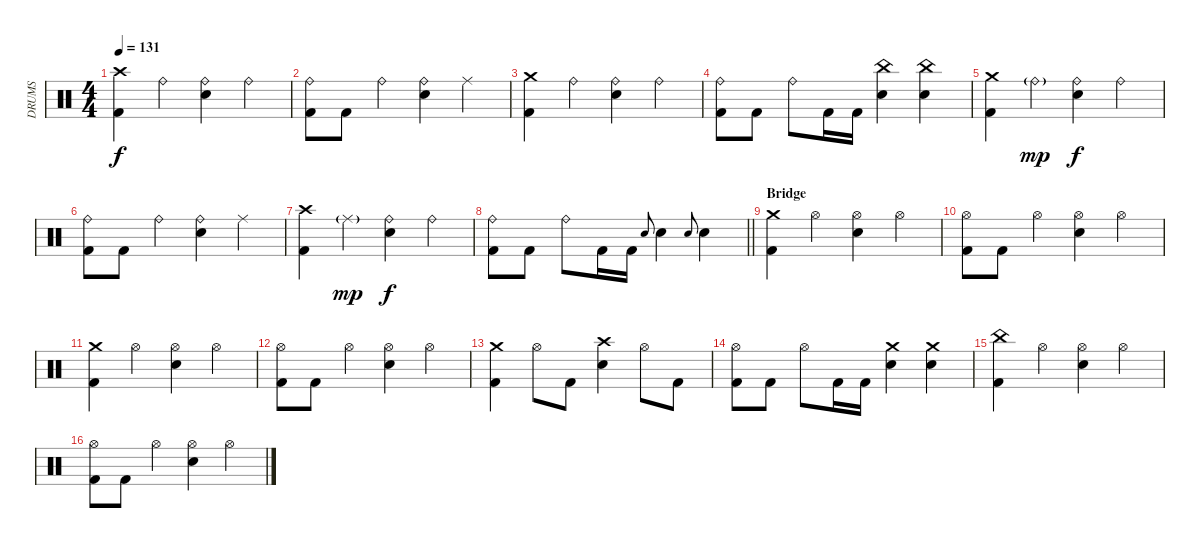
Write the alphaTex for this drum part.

\track ("DRUMS" "DRUMS") {instrument percussion}
\staff {score}
\articulation defaults
\ts (4 4)
\tempo 131
\clef neutral
\ks c
("Crash high (hit)" "Kick (hit) 2").4{dy f} "Ride (bell)".4 ("Ride (bell)" "Snare (hit) 2").4 "Ride (bell)".4 |
("Ride (bell)" "Kick (hit) 2").8 "Kick (hit) 2".8 "Ride (bell)".4 ("Ride (bell)" "Snare (hit) 2").4 "Ride (middle)".4 |
("Crash medium (hit)" "Kick (hit) 2").4 "Ride (bell)".4 ("Ride (bell)" "Snare (hit) 2").4 "Ride (bell)".4 |
("Ride (bell)" "Kick (hit) 2").8 "Kick (hit) 2".8 "Ride (bell)".8 "Kick (hit) 2".16 "Kick (hit) 2".16 ("China (hit)" "Snare (hit) 2").4 ("China (hit)" "Snare (hit) 2").4 |
("Crash medium (hit)" "Kick (hit) 2").4 "Ride (bell)"{g}.4{dy mp} ("Ride (bell)" "Snare (hit) 2").4{dy f} "Ride (bell)".4 |
("Ride (bell)" "Kick (hit) 2").8 "Kick (hit) 2".8 "Ride (bell)".4 ("Ride (bell)" "Snare (hit) 2").4 "Ride (middle)".4 |
("Crash high (hit)" "Kick (hit) 2").4 "Ride (middle)"{g}.4{dy mp} ("Ride (bell)" "Snare (hit) 2").4{dy f} "Ride (bell)".4 |
\barLineRight lightlight
("Ride (bell)" "Kick (hit) 2").8 "Kick (hit) 2".8 "Ride (bell)".8 "Kick (hit) 2".16 "Kick (hit) 2".16 "Snare (hit) 2".8{gr onbeat} "Snare (hit) 2".4 "Snare (hit) 2".8{gr onbeat} "Snare (hit) 2".4 |
\section ("" "Bridge")
("Crash medium (hit)" "Kick (hit) 2").4 "Hi-Hat (open)".4 ("Hi-Hat (open)" "Snare (hit) 2").4 "Hi-Hat (open)".4 |
("Hi-Hat (open)" "Kick (hit) 2").8 "Kick (hit) 2".8 "Hi-Hat (open)".4 ("Hi-Hat (open)" "Snare (hit) 2").4 "Hi-Hat (open)".4 |
("Crash medium (hit)" "Kick (hit) 2").4 "Hi-Hat (open)".4 ("Hi-Hat (open)" "Snare (hit) 2").4 "Hi-Hat (open)".4 |
("Hi-Hat (open)" "Kick (hit) 2").8 "Kick (hit) 2".8 "Hi-Hat (open)".4 ("Hi-Hat (open)" "Snare (hit) 2").4 "Hi-Hat (open)".4 |
("Crash medium (hit)" "Kick (hit) 2").4 "Hi-Hat (open)".8 "Kick (hit) 2".8 ("Crash high (hit)" "Snare (hit) 2").4 "Hi-Hat (open)".8 "Kick (hit) 2".8 |
("Hi-Hat (open)" "Kick (hit) 2").8 "Kick (hit) 2".8 "Hi-Hat (open)".8 "Kick (hit) 2".16 "Kick (hit) 2".16 ("Crash medium (hit)" "Snare (hit) 2").4 ("Crash medium (hit)" "Snare (hit) 2").4 |
("China (hit)" "Kick (hit) 2").4 "Hi-Hat (open)".4 ("Hi-Hat (open)" "Snare (hit) 2").4 "Hi-Hat (open)".4 |
("Hi-Hat (open)" "Kick (hit) 2").8 "Kick (hit) 2".8 "Hi-Hat (open)".4 ("Hi-Hat (open)" "Snare (hit) 2").4 "Hi-Hat (open)".4
